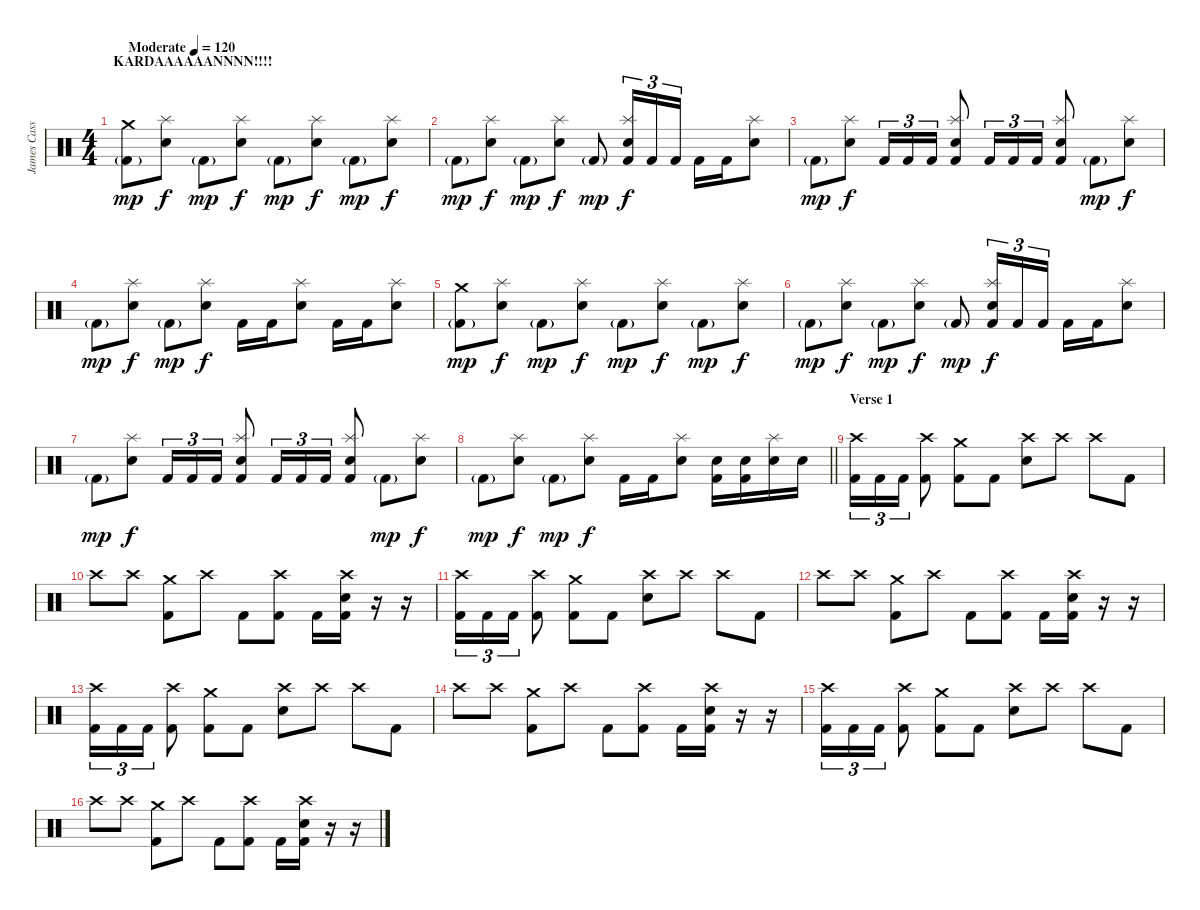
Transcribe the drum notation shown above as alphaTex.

\track ("James Cassels" "James Cass") {instrument percussion}
\staff {score}
\articulation defaults
\ts (4 4)
\section ("" "KARDAAAAAANNNN!!!!")
\tempo (120 "Moderate")
\clef neutral
\ks c
("Crash medium (hit)" "Kick (hit) 2"{g}).8{dy mp} ("Splash (hit)" "Electric Snare (hit)").8{dy f} "Kick (hit) 2"{g}.8{dy mp} ("Splash (hit)" "Electric Snare (hit)").8{dy f} "Kick (hit) 2"{g}.8{dy mp} ("Splash (hit)" "Electric Snare (hit)").8{dy f} "Kick (hit) 2"{g}.8{dy mp} ("Splash (hit)" "Electric Snare (hit)").8{dy f} |
"Kick (hit) 2"{g}.8{dy mp} ("Splash (hit)" "Electric Snare (hit)").8{dy f} "Kick (hit) 2"{g}.8{dy mp} ("Splash (hit)" "Electric Snare (hit)").8{dy f} "Kick (hit) 2"{g}.8{dy mp} ("Splash (hit)" "Electric Snare (hit)" "Kick (hit) 2").16{tu (3 2) dy f} "Kick (hit) 2".16{tu (3 2)} "Kick (hit) 2".16{tu (3 2)} "Kick (hit) 2".16 "Kick (hit) 2".16 ("Electric Snare (hit)" "Splash (hit)").8 |
"Kick (hit) 2"{g}.8{dy mp} ("Splash (hit)" "Electric Snare (hit)").8{dy f} "Kick (hit) 2".16{tu (3 2)} "Kick (hit) 2".16{tu (3 2)} "Kick (hit) 2".16{tu (3 2)} ("Splash (hit)" "Electric Snare (hit)" "Kick (hit) 2").8 "Kick (hit) 2".16{tu (3 2)} "Kick (hit) 2".16{tu (3 2)} "Kick (hit) 2".16{tu (3 2)} ("Splash (hit)" "Electric Snare (hit)" "Kick (hit) 2").8 "Kick (hit) 2"{g}.8{dy mp} ("Splash (hit)" "Electric Snare (hit)").8{dy f} |
"Kick (hit) 2"{g}.8{dy mp} ("Splash (hit)" "Electric Snare (hit)").8{dy f} "Kick (hit) 2"{g}.8{dy mp} ("Splash (hit)" "Electric Snare (hit)").8{dy f} "Kick (hit) 2".16 "Kick (hit) 2".16 ("Splash (hit)" "Electric Snare (hit)").8 "Kick (hit) 2".16 "Kick (hit) 2".16 ("Splash (hit)" "Electric Snare (hit)").8 |
("Crash medium (hit)" "Kick (hit) 2"{g}).8{dy mp} ("Splash (hit)" "Electric Snare (hit)").8{dy f} "Kick (hit) 2"{g}.8{dy mp} ("Splash (hit)" "Electric Snare (hit)").8{dy f} "Kick (hit) 2"{g}.8{dy mp} ("Splash (hit)" "Electric Snare (hit)").8{dy f} "Kick (hit) 2"{g}.8{dy mp} ("Splash (hit)" "Electric Snare (hit)").8{dy f} |
"Kick (hit) 2"{g}.8{dy mp} ("Splash (hit)" "Electric Snare (hit)").8{dy f} "Kick (hit) 2"{g}.8{dy mp} ("Splash (hit)" "Electric Snare (hit)").8{dy f} "Kick (hit) 2"{g}.8{dy mp} ("Splash (hit)" "Electric Snare (hit)" "Kick (hit) 2").16{tu (3 2) dy f} "Kick (hit) 2".16{tu (3 2)} "Kick (hit) 2".16{tu (3 2)} "Kick (hit) 2".16 "Kick (hit) 2".16 ("Electric Snare (hit)" "Splash (hit)").8 |
"Kick (hit) 2"{g}.8{dy mp} ("Splash (hit)" "Electric Snare (hit)").8{dy f} "Kick (hit) 2".16{tu (3 2)} "Kick (hit) 2".16{tu (3 2)} "Kick (hit) 2".16{tu (3 2)} ("Splash (hit)" "Electric Snare (hit)" "Kick (hit) 2").8 "Kick (hit) 2".16{tu (3 2)} "Kick (hit) 2".16{tu (3 2)} "Kick (hit) 2".16{tu (3 2)} ("Splash (hit)" "Electric Snare (hit)" "Kick (hit) 2").8 "Kick (hit) 2"{g}.8{dy mp} ("Splash (hit)" "Electric Snare (hit)").8{dy f} |
\barLineRight lightlight "Kick (hit) 2"{g}.8{dy mp}
("Splash (hit)" "Electric Snare (hit)").8{dy f} "Kick (hit) 2"{g}.8{dy mp} ("Splash (hit)" "Electric Snare (hit)").8{dy f} "Kick (hit) 2".16 "Kick (hit) 2".16 ("Splash (hit)" "Electric Snare (hit)").8 ("Electric Snare (hit)" "Kick (hit) 2").16 ("Electric Snare (hit)" "Kick (hit) 2").16 ("Splash (hit)" "Electric Snare (hit)").16 "Electric Snare (hit)".16 |
\section ("" "Verse 1")
("Crash high (hit)" "Kick (hit) 2").16{tu (3 2)} "Kick (hit) 2".16{tu (3 2)} "Kick (hit) 2".16{tu (3 2)} ("Crash high (hit)" "Kick (hit) 2").8 ("Crash medium (hit)" "Kick (hit) 2").8 "Kick (hit) 2".8 ("Electric Snare (hit)" "Crash high (hit)").8 "Crash high (hit)".8 "Crash high (hit)".8 "Kick (hit) 2".8 |
"Crash high (hit)".8 "Crash high (hit)".8 ("Kick (hit) 2" "Crash medium (hit)").8 "Crash high (hit)".8 "Kick (hit) 2".8 ("Crash high (hit)" "Kick (hit) 2").8 "Kick (hit) 2".16 ("Crash high (hit)" "Electric Snare (hit)" "Kick (hit) 2").16 r.16 r.16 |
("Crash high (hit)" "Kick (hit) 2").16{tu (3 2)} "Kick (hit) 2".16{tu (3 2)} "Kick (hit) 2".16{tu (3 2)} ("Crash high (hit)" "Kick (hit) 2").8 ("Crash medium (hit)" "Kick (hit) 2").8 "Kick (hit) 2".8 ("Electric Snare (hit)" "Crash high (hit)").8 "Crash high (hit)".8 "Crash high (hit)".8 "Kick (hit) 2".8 |
"Crash high (hit)".8 "Crash high (hit)".8 ("Kick (hit) 2" "Crash medium (hit)").8 "Crash high (hit)".8 "Kick (hit) 2".8 ("Crash high (hit)" "Kick (hit) 2").8 "Kick (hit) 2".16 ("Crash high (hit)" "Electric Snare (hit)" "Kick (hit) 2").16 r.16 r.16 |
("Crash high (hit)" "Kick (hit) 2").16{tu (3 2)} "Kick (hit) 2".16{tu (3 2)} "Kick (hit) 2".16{tu (3 2)} ("Crash high (hit)" "Kick (hit) 2").8 ("Crash medium (hit)" "Kick (hit) 2").8 "Kick (hit) 2".8 ("Electric Snare (hit)" "Crash high (hit)").8 "Crash high (hit)".8 "Crash high (hit)".8 "Kick (hit) 2".8 |
"Crash high (hit)".8 "Crash high (hit)".8 ("Kick (hit) 2" "Crash medium (hit)").8 "Crash high (hit)".8 "Kick (hit) 2".8 ("Crash high (hit)" "Kick (hit) 2").8 "Kick (hit) 2".16 ("Crash high (hit)" "Electric Snare (hit)" "Kick (hit) 2").16 r.16 r.16 |
("Crash high (hit)" "Kick (hit) 2").16{tu (3 2)} "Kick (hit) 2".16{tu (3 2)} "Kick (hit) 2".16{tu (3 2)} ("Crash high (hit)" "Kick (hit) 2").8 ("Crash medium (hit)" "Kick (hit) 2").8 "Kick (hit) 2".8 ("Electric Snare (hit)" "Crash high (hit)").8 "Crash high (hit)".8 "Crash high (hit)".8 "Kick (hit) 2".8 |
"Crash high (hit)".8 "Crash high (hit)".8 ("Kick (hit) 2" "Crash medium (hit)").8 "Crash high (hit)".8 "Kick (hit) 2".8 ("Crash high (hit)" "Kick (hit) 2").8 "Kick (hit) 2".16 ("Crash high (hit)" "Electric Snare (hit)" "Kick (hit) 2").16 r.16 r.16
